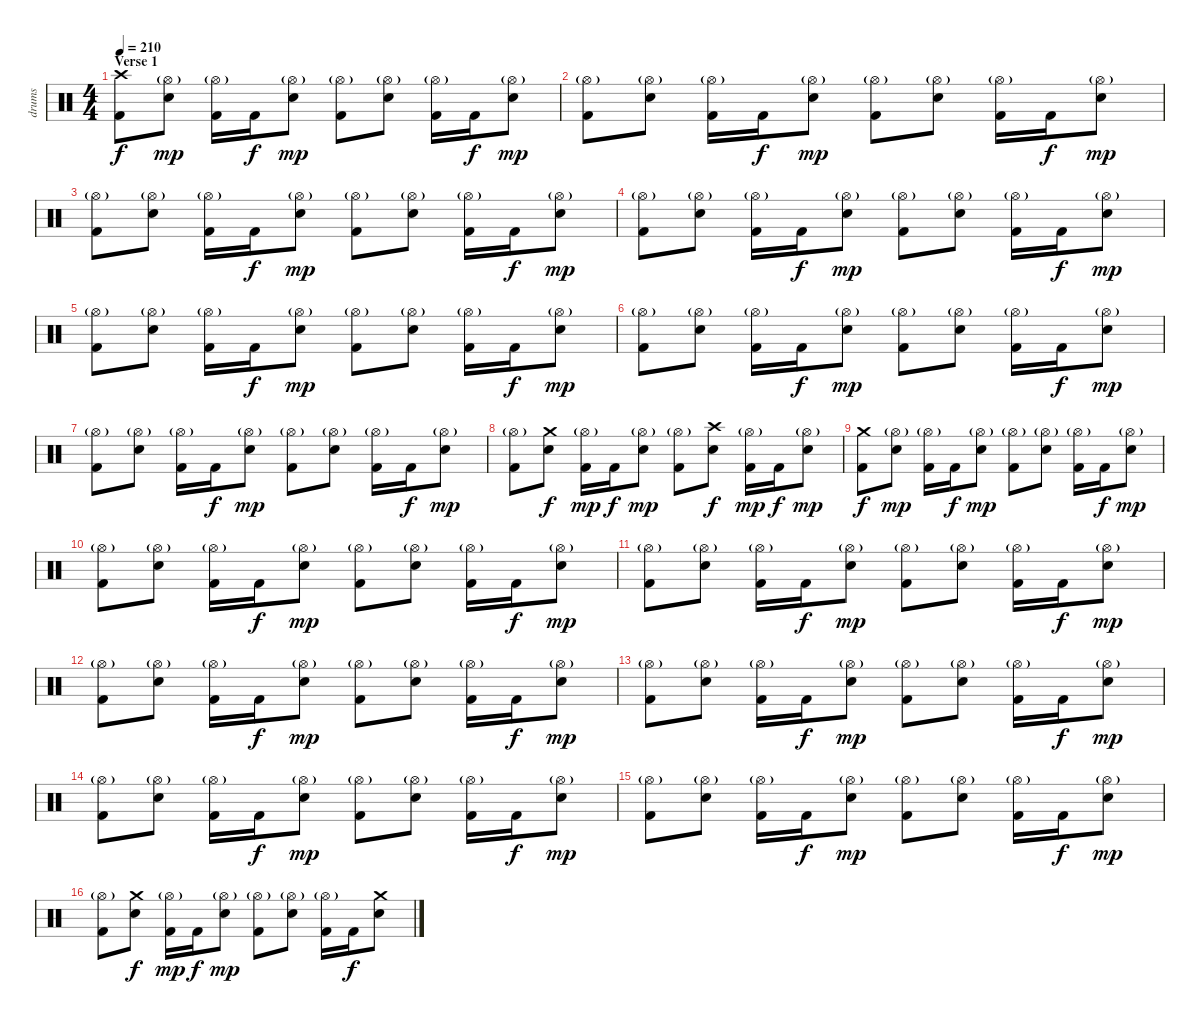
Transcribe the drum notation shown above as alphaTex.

\track ("drums" "drums") {instrument percussion}
\staff {score}
\articulation defaults
\ts (4 4)
\section ("" "Verse 1")
\tempo 210
\clef neutral
\ks c
("Crash high (hit)" "Kick (hit) 2").8{dy f} ("Hi-Hat (open)"{g} "Electric Snare (hit)").8{dy mp} ("Hi-Hat (open)"{g} "Kick (hit) 2").16 "Kick (hit) 2".16{dy f} ("Hi-Hat (open)"{g} "Electric Snare (hit)").8{dy mp} ("Hi-Hat (open)"{g} "Kick (hit) 2").8 ("Hi-Hat (open)"{g} "Electric Snare (hit)").8 ("Hi-Hat (open)"{g} "Kick (hit) 2").16 "Kick (hit) 2".16{dy f} ("Hi-Hat (open)"{g} "Electric Snare (hit)").8{dy mp} |
("Hi-Hat (open)"{g} "Kick (hit) 2").8 ("Hi-Hat (open)"{g} "Electric Snare (hit)").8 ("Hi-Hat (open)"{g} "Kick (hit) 2").16 "Kick (hit) 2".16{dy f} ("Hi-Hat (open)"{g} "Electric Snare (hit)").8{dy mp} ("Hi-Hat (open)"{g} "Kick (hit) 2").8 ("Hi-Hat (open)"{g} "Electric Snare (hit)").8 ("Hi-Hat (open)"{g} "Kick (hit) 2").16 "Kick (hit) 2".16{dy f} ("Hi-Hat (open)"{g} "Electric Snare (hit)").8{dy mp} |
("Hi-Hat (open)"{g} "Kick (hit) 2").8 ("Hi-Hat (open)"{g} "Electric Snare (hit)").8 ("Hi-Hat (open)"{g} "Kick (hit) 2").16 "Kick (hit) 2".16{dy f} ("Hi-Hat (open)"{g} "Electric Snare (hit)").8{dy mp} ("Hi-Hat (open)"{g} "Kick (hit) 2").8 ("Hi-Hat (open)"{g} "Electric Snare (hit)").8 ("Hi-Hat (open)"{g} "Kick (hit) 2").16 "Kick (hit) 2".16{dy f} ("Hi-Hat (open)"{g} "Electric Snare (hit)").8{dy mp} |
("Hi-Hat (open)"{g} "Kick (hit) 2").8 ("Hi-Hat (open)"{g} "Electric Snare (hit)").8 ("Hi-Hat (open)"{g} "Kick (hit) 2").16 "Kick (hit) 2".16{dy f} ("Hi-Hat (open)"{g} "Electric Snare (hit)").8{dy mp} ("Hi-Hat (open)"{g} "Kick (hit) 2").8 ("Hi-Hat (open)"{g} "Electric Snare (hit)").8 ("Hi-Hat (open)"{g} "Kick (hit) 2").16 "Kick (hit) 2".16{dy f} ("Hi-Hat (open)"{g} "Electric Snare (hit)").8{dy mp} |
("Hi-Hat (open)"{g} "Kick (hit) 2").8 ("Hi-Hat (open)"{g} "Electric Snare (hit)").8 ("Hi-Hat (open)"{g} "Kick (hit) 2").16 "Kick (hit) 2".16{dy f} ("Hi-Hat (open)"{g} "Electric Snare (hit)").8{dy mp} ("Hi-Hat (open)"{g} "Kick (hit) 2").8 ("Hi-Hat (open)"{g} "Electric Snare (hit)").8 ("Hi-Hat (open)"{g} "Kick (hit) 2").16 "Kick (hit) 2".16{dy f} ("Hi-Hat (open)"{g} "Electric Snare (hit)").8{dy mp} |
("Hi-Hat (open)"{g} "Kick (hit) 2").8 ("Hi-Hat (open)"{g} "Electric Snare (hit)").8 ("Hi-Hat (open)"{g} "Kick (hit) 2").16 "Kick (hit) 2".16{dy f} ("Hi-Hat (open)"{g} "Electric Snare (hit)").8{dy mp} ("Hi-Hat (open)"{g} "Kick (hit) 2").8 ("Hi-Hat (open)"{g} "Electric Snare (hit)").8 ("Hi-Hat (open)"{g} "Kick (hit) 2").16 "Kick (hit) 2".16{dy f} ("Hi-Hat (open)"{g} "Electric Snare (hit)").8{dy mp} |
("Hi-Hat (open)"{g} "Kick (hit) 2").8 ("Hi-Hat (open)"{g} "Electric Snare (hit)").8 ("Hi-Hat (open)"{g} "Kick (hit) 2").16 "Kick (hit) 2".16{dy f} ("Hi-Hat (open)"{g} "Electric Snare (hit)").8{dy mp} ("Hi-Hat (open)"{g} "Kick (hit) 2").8 ("Hi-Hat (open)"{g} "Electric Snare (hit)").8 ("Hi-Hat (open)"{g} "Kick (hit) 2").16 "Kick (hit) 2".16{dy f} ("Hi-Hat (open)"{g} "Electric Snare (hit)").8{dy mp} |
("Hi-Hat (open)"{g} "Kick (hit) 2").8 ("Crash medium (hit)" "Electric Snare (hit)").8{dy f} ("Hi-Hat (open)"{g} "Kick (hit) 2").16{dy mp} "Kick (hit) 2".16{dy f} ("Hi-Hat (open)"{g} "Electric Snare (hit)").8{dy mp} ("Hi-Hat (open)"{g} "Kick (hit) 2").8 ("Crash high (hit)" "Electric Snare (hit)").8{dy f} ("Hi-Hat (open)"{g} "Kick (hit) 2").16{dy mp} "Kick (hit) 2".16{dy f} ("Hi-Hat (open)"{g} "Electric Snare (hit)").8{dy mp} |
\section ("" "")
("Crash medium (hit)" "Kick (hit) 2").8{dy f} ("Hi-Hat (open)"{g} "Electric Snare (hit)").8{dy mp} ("Hi-Hat (open)"{g} "Kick (hit) 2").16 "Kick (hit) 2".16{dy f} ("Hi-Hat (open)"{g} "Electric Snare (hit)").8{dy mp} ("Hi-Hat (open)"{g} "Kick (hit) 2").8 ("Hi-Hat (open)"{g} "Electric Snare (hit)").8 ("Hi-Hat (open)"{g} "Kick (hit) 2").16 "Kick (hit) 2".16{dy f} ("Hi-Hat (open)"{g} "Electric Snare (hit)").8{dy mp} |
("Hi-Hat (open)"{g} "Kick (hit) 2").8 ("Hi-Hat (open)"{g} "Electric Snare (hit)").8 ("Hi-Hat (open)"{g} "Kick (hit) 2").16 "Kick (hit) 2".16{dy f} ("Hi-Hat (open)"{g} "Electric Snare (hit)").8{dy mp} ("Hi-Hat (open)"{g} "Kick (hit) 2").8 ("Hi-Hat (open)"{g} "Electric Snare (hit)").8 ("Hi-Hat (open)"{g} "Kick (hit) 2").16 "Kick (hit) 2".16{dy f} ("Hi-Hat (open)"{g} "Electric Snare (hit)").8{dy mp} |
("Hi-Hat (open)"{g} "Kick (hit) 2").8 ("Hi-Hat (open)"{g} "Electric Snare (hit)").8 ("Hi-Hat (open)"{g} "Kick (hit) 2").16 "Kick (hit) 2".16{dy f} ("Hi-Hat (open)"{g} "Electric Snare (hit)").8{dy mp} ("Hi-Hat (open)"{g} "Kick (hit) 2").8 ("Hi-Hat (open)"{g} "Electric Snare (hit)").8 ("Hi-Hat (open)"{g} "Kick (hit) 2").16 "Kick (hit) 2".16{dy f} ("Hi-Hat (open)"{g} "Electric Snare (hit)").8{dy mp} |
("Hi-Hat (open)"{g} "Kick (hit) 2").8 ("Hi-Hat (open)"{g} "Electric Snare (hit)").8 ("Hi-Hat (open)"{g} "Kick (hit) 2").16 "Kick (hit) 2".16{dy f} ("Hi-Hat (open)"{g} "Electric Snare (hit)").8{dy mp} ("Hi-Hat (open)"{g} "Kick (hit) 2").8 ("Hi-Hat (open)"{g} "Electric Snare (hit)").8 ("Hi-Hat (open)"{g} "Kick (hit) 2").16 "Kick (hit) 2".16{dy f} ("Hi-Hat (open)"{g} "Electric Snare (hit)").8{dy mp} |
("Hi-Hat (open)"{g} "Kick (hit) 2").8 ("Hi-Hat (open)"{g} "Electric Snare (hit)").8 ("Hi-Hat (open)"{g} "Kick (hit) 2").16 "Kick (hit) 2".16{dy f} ("Hi-Hat (open)"{g} "Electric Snare (hit)").8{dy mp} ("Hi-Hat (open)"{g} "Kick (hit) 2").8 ("Hi-Hat (open)"{g} "Electric Snare (hit)").8 ("Hi-Hat (open)"{g} "Kick (hit) 2").16 "Kick (hit) 2".16{dy f} ("Hi-Hat (open)"{g} "Electric Snare (hit)").8{dy mp} |
("Hi-Hat (open)"{g} "Kick (hit) 2").8 ("Hi-Hat (open)"{g} "Electric Snare (hit)").8 ("Hi-Hat (open)"{g} "Kick (hit) 2").16 "Kick (hit) 2".16{dy f} ("Hi-Hat (open)"{g} "Electric Snare (hit)").8{dy mp} ("Hi-Hat (open)"{g} "Kick (hit) 2").8 ("Hi-Hat (open)"{g} "Electric Snare (hit)").8 ("Hi-Hat (open)"{g} "Kick (hit) 2").16 "Kick (hit) 2".16{dy f} ("Hi-Hat (open)"{g} "Electric Snare (hit)").8{dy mp} |
("Hi-Hat (open)"{g} "Kick (hit) 2").8 ("Hi-Hat (open)"{g} "Electric Snare (hit)").8 ("Hi-Hat (open)"{g} "Kick (hit) 2").16 "Kick (hit) 2".16{dy f} ("Hi-Hat (open)"{g} "Electric Snare (hit)").8{dy mp} ("Hi-Hat (open)"{g} "Kick (hit) 2").8 ("Hi-Hat (open)"{g} "Electric Snare (hit)").8 ("Hi-Hat (open)"{g} "Kick (hit) 2").16 "Kick (hit) 2".16{dy f} ("Hi-Hat (open)"{g} "Electric Snare (hit)").8{dy mp} |
("Hi-Hat (open)"{g} "Kick (hit) 2").8 ("Crash medium (hit)" "Electric Snare (hit)").8{dy f} ("Hi-Hat (open)"{g} "Kick (hit) 2").16{dy mp} "Kick (hit) 2".16{dy f} ("Hi-Hat (open)"{g} "Electric Snare (hit)").8{dy mp} ("Hi-Hat (open)"{g} "Kick (hit) 2").8 ("Hi-Hat (open)"{g} "Electric Snare (hit)").8 ("Hi-Hat (open)"{g} "Kick (hit) 2").16 "Kick (hit) 2".16{dy f} ("Crash medium (hit)" "Electric Snare (hit)").8
